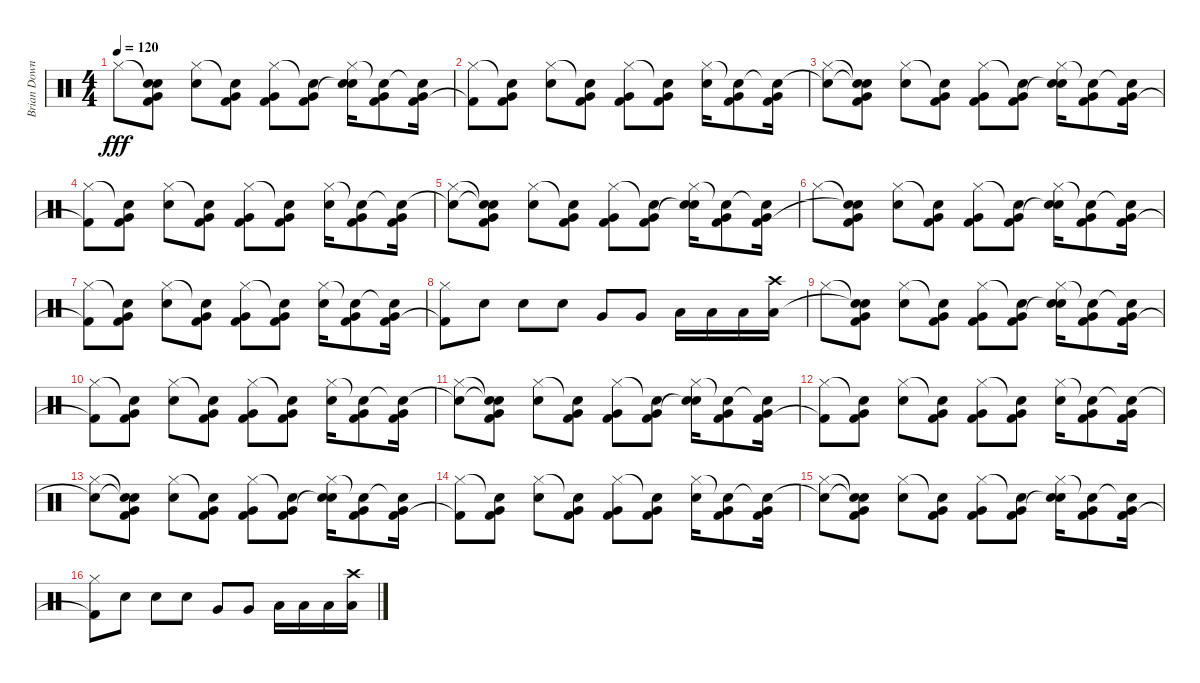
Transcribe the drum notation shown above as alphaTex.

\track ("Brian Downey" "Brian Down") {instrument percussion}
\staff {score}
\articulation defaults
\ts (4 4)
\tempo 120
\clef neutral
\ks c "Hi-Hat (closed)".8{dy fff}
("Snare (hit)"{t} "Snare (hit)"{t} "Kick (hit) 2" "Very Low Tom (hit)").8 ("Hi-Hat (closed)" "Electric Snare (hit)").8 ("Snare (hit)"{t} "Kick (hit) 2" "Very Low Tom (hit)").8 ("Hi-Hat (closed)" "Kick (hit) 2" "Very Low Tom (hit)").8 ("Snare (hit)"{t} "Kick (hit) 2" "Very Low Tom (hit)").8 ("Hi-Hat (closed)" "Electric Snare (hit)" "Snare (hit)"{t}).16 ("Snare (hit)"{t} "Kick (hit) 2" "Very Low Tom (hit)").8 ("Snare (hit)"{t} "Kick (hit) 2" "Very Low Tom (hit)").16 |
("Hi-Hat (closed)" "Kick (hit) 2"{t}).8 ("Snare (hit)"{t} "Kick (hit) 2" "Very Low Tom (hit)").8 ("Hi-Hat (closed)" "Electric Snare (hit)").8 ("Snare (hit)"{t} "Kick (hit) 2" "Very Low Tom (hit)").8 ("Hi-Hat (closed)" "Kick (hit) 2" "Very Low Tom (hit)").8 ("Snare (hit)"{t} "Kick (hit) 2" "Very Low Tom (hit)").8 ("Hi-Hat (closed)" "Electric Snare (hit)").16 ("Snare (hit)"{t} "Kick (hit) 2" "Very Low Tom (hit)").8 ("Snare (hit)"{t} "Kick (hit) 2" "Very Low Tom (hit)").16 |
("Snare (hit)"{t} "Hi-Hat (closed)").8 ("Snare (hit)"{t} "Snare (hit)"{t} "Kick (hit) 2" "Very Low Tom (hit)").8 ("Hi-Hat (closed)" "Electric Snare (hit)").8 ("Snare (hit)"{t} "Kick (hit) 2" "Very Low Tom (hit)").8 ("Hi-Hat (closed)" "Kick (hit) 2" "Very Low Tom (hit)").8 ("Snare (hit)"{t} "Kick (hit) 2" "Very Low Tom (hit)").8 ("Hi-Hat (closed)" "Electric Snare (hit)" "Snare (hit)"{t}).16 ("Snare (hit)"{t} "Kick (hit) 2" "Very Low Tom (hit)").8 ("Snare (hit)"{t} "Kick (hit) 2" "Very Low Tom (hit)").16 |
("Hi-Hat (closed)" "Kick (hit) 2"{t}).8 ("Snare (hit)"{t} "Kick (hit) 2" "Very Low Tom (hit)").8 ("Hi-Hat (closed)" "Electric Snare (hit)").8 ("Snare (hit)"{t} "Kick (hit) 2" "Very Low Tom (hit)").8 ("Hi-Hat (closed)" "Kick (hit) 2" "Very Low Tom (hit)").8 ("Snare (hit)"{t} "Kick (hit) 2" "Very Low Tom (hit)").8 ("Hi-Hat (closed)" "Electric Snare (hit)").16 ("Snare (hit)"{t} "Kick (hit) 2" "Very Low Tom (hit)").8 ("Snare (hit)"{t} "Kick (hit) 2" "Very Low Tom (hit)").16 |
("Snare (hit)"{t} "Hi-Hat (closed)").8 ("Snare (hit)"{t} "Snare (hit)"{t} "Kick (hit) 2" "Very Low Tom (hit)").8 ("Hi-Hat (closed)" "Electric Snare (hit)").8 ("Snare (hit)"{t} "Kick (hit) 2" "Very Low Tom (hit)").8 ("Hi-Hat (closed)" "Kick (hit) 2" "Very Low Tom (hit)").8 ("Snare (hit)"{t} "Kick (hit) 2" "Very Low Tom (hit)").8 ("Hi-Hat (closed)" "Electric Snare (hit)" "Snare (hit)"{t}).16 ("Snare (hit)"{t} "Kick (hit) 2" "Very Low Tom (hit)").8 ("Snare (hit)"{t} "Kick (hit) 2" "Very Low Tom (hit)").16 |
"Hi-Hat (closed)".8 ("Snare (hit)"{t} "Snare (hit)"{t} "Kick (hit) 2" "Very Low Tom (hit)").8 ("Hi-Hat (closed)" "Electric Snare (hit)").8 ("Snare (hit)"{t} "Kick (hit) 2" "Very Low Tom (hit)").8 ("Hi-Hat (closed)" "Kick (hit) 2" "Very Low Tom (hit)").8 ("Snare (hit)"{t} "Kick (hit) 2" "Very Low Tom (hit)").8 ("Hi-Hat (closed)" "Electric Snare (hit)" "Snare (hit)"{t}).16 ("Snare (hit)"{t} "Kick (hit) 2" "Very Low Tom (hit)").8 ("Snare (hit)"{t} "Kick (hit) 2" "Very Low Tom (hit)").16 |
("Hi-Hat (closed)" "Kick (hit) 2"{t}).8 ("Snare (hit)"{t} "Kick (hit) 2" "Very Low Tom (hit)").8 ("Hi-Hat (closed)" "Electric Snare (hit)").8 ("Snare (hit)"{t} "Kick (hit) 2" "Very Low Tom (hit)").8 ("Hi-Hat (closed)" "Kick (hit) 2" "Very Low Tom (hit)").8 ("Snare (hit)"{t} "Kick (hit) 2" "Very Low Tom (hit)").8 ("Hi-Hat (closed)" "Electric Snare (hit)").16 ("Snare (hit)"{t} "Kick (hit) 2" "Very Low Tom (hit)").8 ("Snare (hit)"{t} "Kick (hit) 2" "Very Low Tom (hit)").16 |
("Hi-Hat (closed)" "Kick (hit) 2"{t}).8 "Electric Snare (hit)".8 "Electric Snare (hit)".8 "Electric Snare (hit)".8 "Very Low Tom (hit)".8 "Very Low Tom (hit)".8 "Low Floor Tom (hit)".16 "Low Floor Tom (hit)".16 "Low Floor Tom (hit)".16 ("Crash high (hit)" "Low Floor Tom (hit)").16 |
"Hi-Hat (closed)".8 ("Snare (hit)"{t} "Snare (hit)"{t} "Kick (hit) 2" "Very Low Tom (hit)").8 ("Hi-Hat (closed)" "Electric Snare (hit)").8 ("Snare (hit)"{t} "Kick (hit) 2" "Very Low Tom (hit)").8 ("Hi-Hat (closed)" "Kick (hit) 2" "Very Low Tom (hit)").8 ("Snare (hit)"{t} "Kick (hit) 2" "Very Low Tom (hit)").8 ("Hi-Hat (closed)" "Electric Snare (hit)" "Snare (hit)"{t}).16 ("Snare (hit)"{t} "Kick (hit) 2" "Very Low Tom (hit)").8 ("Snare (hit)"{t} "Kick (hit) 2" "Very Low Tom (hit)").16 |
("Hi-Hat (closed)" "Kick (hit) 2"{t}).8 ("Snare (hit)"{t} "Kick (hit) 2" "Very Low Tom (hit)").8 ("Hi-Hat (closed)" "Electric Snare (hit)").8 ("Snare (hit)"{t} "Kick (hit) 2" "Very Low Tom (hit)").8 ("Hi-Hat (closed)" "Kick (hit) 2" "Very Low Tom (hit)").8 ("Snare (hit)"{t} "Kick (hit) 2" "Very Low Tom (hit)").8 ("Hi-Hat (closed)" "Electric Snare (hit)").16 ("Snare (hit)"{t} "Kick (hit) 2" "Very Low Tom (hit)").8 ("Snare (hit)"{t} "Kick (hit) 2" "Very Low Tom (hit)").16 |
("Snare (hit)"{t} "Hi-Hat (closed)").8 ("Snare (hit)"{t} "Snare (hit)"{t} "Kick (hit) 2" "Very Low Tom (hit)").8 ("Hi-Hat (closed)" "Electric Snare (hit)").8 ("Snare (hit)"{t} "Kick (hit) 2" "Very Low Tom (hit)").8 ("Hi-Hat (closed)" "Kick (hit) 2" "Very Low Tom (hit)").8 ("Snare (hit)"{t} "Kick (hit) 2" "Very Low Tom (hit)").8 ("Hi-Hat (closed)" "Electric Snare (hit)" "Snare (hit)"{t}).16 ("Snare (hit)"{t} "Kick (hit) 2" "Very Low Tom (hit)").8 ("Snare (hit)"{t} "Kick (hit) 2" "Very Low Tom (hit)").16 |
("Hi-Hat (closed)" "Kick (hit) 2"{t}).8 ("Snare (hit)"{t} "Kick (hit) 2" "Very Low Tom (hit)").8 ("Hi-Hat (closed)" "Electric Snare (hit)").8 ("Snare (hit)"{t} "Kick (hit) 2" "Very Low Tom (hit)").8 ("Hi-Hat (closed)" "Kick (hit) 2" "Very Low Tom (hit)").8 ("Snare (hit)"{t} "Kick (hit) 2" "Very Low Tom (hit)").8 ("Hi-Hat (closed)" "Electric Snare (hit)").16 ("Snare (hit)"{t} "Kick (hit) 2" "Very Low Tom (hit)").8 ("Snare (hit)"{t} "Kick (hit) 2" "Very Low Tom (hit)").16 |
("Snare (hit)"{t} "Hi-Hat (closed)").8 ("Snare (hit)"{t} "Snare (hit)"{t} "Kick (hit) 2" "Very Low Tom (hit)").8 ("Hi-Hat (closed)" "Electric Snare (hit)").8 ("Snare (hit)"{t} "Kick (hit) 2" "Very Low Tom (hit)").8 ("Hi-Hat (closed)" "Kick (hit) 2" "Very Low Tom (hit)").8 ("Snare (hit)"{t} "Kick (hit) 2" "Very Low Tom (hit)").8 ("Hi-Hat (closed)" "Electric Snare (hit)" "Snare (hit)"{t}).16 ("Snare (hit)"{t} "Kick (hit) 2" "Very Low Tom (hit)").8 ("Snare (hit)"{t} "Kick (hit) 2" "Very Low Tom (hit)").16 |
("Hi-Hat (closed)" "Kick (hit) 2"{t}).8 ("Snare (hit)"{t} "Kick (hit) 2" "Very Low Tom (hit)").8 ("Hi-Hat (closed)" "Electric Snare (hit)").8 ("Snare (hit)"{t} "Kick (hit) 2" "Very Low Tom (hit)").8 ("Hi-Hat (closed)" "Kick (hit) 2" "Very Low Tom (hit)").8 ("Snare (hit)"{t} "Kick (hit) 2" "Very Low Tom (hit)").8 ("Hi-Hat (closed)" "Electric Snare (hit)").16 ("Snare (hit)"{t} "Kick (hit) 2" "Very Low Tom (hit)").8 ("Snare (hit)"{t} "Kick (hit) 2" "Very Low Tom (hit)").16 |
("Snare (hit)"{t} "Hi-Hat (closed)").8 ("Snare (hit)"{t} "Snare (hit)"{t} "Kick (hit) 2" "Very Low Tom (hit)").8 ("Hi-Hat (closed)" "Electric Snare (hit)").8 ("Snare (hit)"{t} "Kick (hit) 2" "Very Low Tom (hit)").8 ("Hi-Hat (closed)" "Kick (hit) 2" "Very Low Tom (hit)").8 ("Snare (hit)"{t} "Kick (hit) 2" "Very Low Tom (hit)").8 ("Hi-Hat (closed)" "Electric Snare (hit)" "Snare (hit)"{t}).16 ("Snare (hit)"{t} "Kick (hit) 2" "Very Low Tom (hit)").8 ("Snare (hit)"{t} "Kick (hit) 2" "Very Low Tom (hit)").16 |
("Hi-Hat (closed)" "Kick (hit) 2"{t}).8 "Electric Snare (hit)".8 "Electric Snare (hit)".8 "Electric Snare (hit)".8 "Very Low Tom (hit)".8 "Very Low Tom (hit)".8 "Low Floor Tom (hit)".16 "Low Floor Tom (hit)".16 "Low Floor Tom (hit)".16 ("Crash high (hit)" "Low Floor Tom (hit)").16
